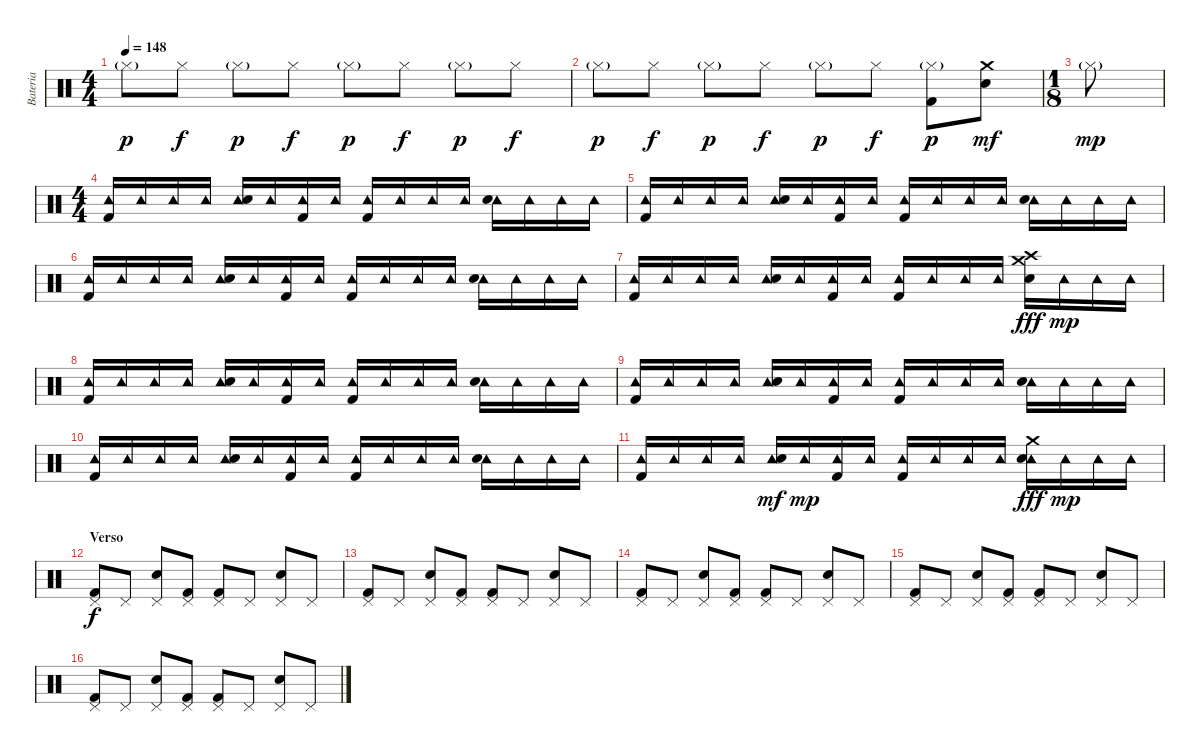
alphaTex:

\track ("Bateria" "Bateria") {instrument percussion}
\staff {score}
\articulation defaults
\ts (4 4)
\tempo 148
\clef neutral
\ks c "Hi-Hat (closed)"{g}.8{dy p} "Hi-Hat (closed)".8{dy f} "Hi-Hat (closed)"{g}.8{dy p} "Hi-Hat (closed)".8{dy f} "Hi-Hat (closed)"{g}.8{dy p} "Hi-Hat (closed)".8{dy f} "Hi-Hat (closed)"{g}.8{dy p} "Hi-Hat (closed)".8{dy f}
|
"Hi-Hat (closed)"{g}.8{dy p} "Hi-Hat (closed)".8{dy f} "Hi-Hat (closed)"{g}.8{dy p} "Hi-Hat (closed)".8{dy f} "Hi-Hat (closed)"{g}.8{dy p} "Hi-Hat (closed)".8{dy f} ("Hi-Hat (closed)"{g} "Kick (hit) 2").8{dy p} ("Crash medium (hit)" "Snare (hit) 2").8{dy mf} |
\ts (1 8)
"Hi-Hat (closed)"{g}.8{dy mp} |
\ts (4 4)
("Tambourine (hit)" "Kick (hit) 2").16 "Tambourine (hit)".16 "Tambourine (hit)".16 "Tambourine (hit)".16 ("Tambourine (hit)" "Snare (hit) 2").16 "Tambourine (hit)".16 ("Tambourine (hit)" "Kick (hit) 2").16 "Tambourine (hit)".16 ("Tambourine (hit)" "Kick (hit) 2").16 "Tambourine (hit)".16 "Tambourine (hit)".16 "Tambourine (hit)".16 ("Tambourine (hit)" "Snare (hit) 2").16 "Tambourine (hit)".16 "Tambourine (hit)".16 "Tambourine (hit)".16 |
("Tambourine (hit)" "Kick (hit) 2").16 "Tambourine (hit)".16 "Tambourine (hit)".16 "Tambourine (hit)".16 ("Tambourine (hit)" "Snare (hit) 2").16 "Tambourine (hit)".16 ("Tambourine (hit)" "Kick (hit) 2").16 "Tambourine (hit)".16 ("Tambourine (hit)" "Kick (hit) 2").16 "Tambourine (hit)".16 "Tambourine (hit)".16 "Tambourine (hit)".16 ("Tambourine (hit)" "Snare (hit) 2").16 "Tambourine (hit)".16 "Tambourine (hit)".16 "Tambourine (hit)".16 |
("Tambourine (hit)" "Kick (hit) 2").16 "Tambourine (hit)".16 "Tambourine (hit)".16 "Tambourine (hit)".16 ("Tambourine (hit)" "Snare (hit) 2").16 "Tambourine (hit)".16 ("Tambourine (hit)" "Kick (hit) 2").16 "Tambourine (hit)".16 ("Tambourine (hit)" "Kick (hit) 2").16 "Tambourine (hit)".16 "Tambourine (hit)".16 "Tambourine (hit)".16 ("Tambourine (hit)" "Snare (hit) 2").16 "Tambourine (hit)".16 "Tambourine (hit)".16 "Tambourine (hit)".16 |
("Tambourine (hit)" "Kick (hit) 2").16 "Tambourine (hit)".16 "Tambourine (hit)".16 "Tambourine (hit)".16 ("Tambourine (hit)" "Snare (hit) 2").16 "Tambourine (hit)".16 ("Tambourine (hit)" "Kick (hit) 2").16 "Tambourine (hit)".16 ("Tambourine (hit)" "Kick (hit) 2").16 "Tambourine (hit)".16 "Tambourine (hit)".16 "Tambourine (hit)".16 ("Crash high (hit)" "Crash medium (hit)" "Snare (hit) 2").16{dy fff} "Tambourine (hit)".16{dy mp} "Tambourine (hit)".16 "Tambourine (hit)".16 |
("Tambourine (hit)" "Kick (hit) 2").16 "Tambourine (hit)".16 "Tambourine (hit)".16 "Tambourine (hit)".16 ("Tambourine (hit)" "Snare (hit) 2").16 "Tambourine (hit)".16 ("Tambourine (hit)" "Kick (hit) 2").16 "Tambourine (hit)".16 ("Tambourine (hit)" "Kick (hit) 2").16 "Tambourine (hit)".16 "Tambourine (hit)".16 "Tambourine (hit)".16 ("Tambourine (hit)" "Snare (hit) 2").16 "Tambourine (hit)".16 "Tambourine (hit)".16 "Tambourine (hit)".16 |
("Tambourine (hit)" "Kick (hit) 2").16 "Tambourine (hit)".16 "Tambourine (hit)".16 "Tambourine (hit)".16 ("Tambourine (hit)" "Snare (hit) 2").16 "Tambourine (hit)".16 ("Tambourine (hit)" "Kick (hit) 2").16 "Tambourine (hit)".16 ("Tambourine (hit)" "Kick (hit) 2").16 "Tambourine (hit)".16 "Tambourine (hit)".16 "Tambourine (hit)".16 ("Tambourine (hit)" "Snare (hit) 2").16 "Tambourine (hit)".16 "Tambourine (hit)".16 "Tambourine (hit)".16 |
("Tambourine (hit)" "Kick (hit) 2").16 "Tambourine (hit)".16 "Tambourine (hit)".16 "Tambourine (hit)".16 ("Tambourine (hit)" "Snare (hit) 2").16 "Tambourine (hit)".16 ("Tambourine (hit)" "Kick (hit) 2").16 "Tambourine (hit)".16 ("Tambourine (hit)" "Kick (hit) 2").16 "Tambourine (hit)".16 "Tambourine (hit)".16 "Tambourine (hit)".16 ("Tambourine (hit)" "Snare (hit) 2").16 "Tambourine (hit)".16 "Tambourine (hit)".16 "Tambourine (hit)".16 |
("Tambourine (hit)" "Kick (hit) 2").16 "Tambourine (hit)".16 "Tambourine (hit)".16 "Tambourine (hit)".16 ("Tambourine (hit)" "Snare (hit) 2").16{dy mf} "Tambourine (hit)".16{dy mp} ("Tambourine (hit)" "Kick (hit) 2").16 "Tambourine (hit)".16 ("Tambourine (hit)" "Kick (hit) 2").16 "Tambourine (hit)".16 "Tambourine (hit)".16 "Tambourine (hit)".16 ("Tambourine (hit)" "Crash medium (hit)" "Snare (hit) 2").16{dy fff} "Tambourine (hit)".16{dy mp} "Tambourine (hit)".16 "Tambourine (hit)".16 |
\section ("" "Verso")
("Pedal Hi-Hat (hit)" "Kick (hit) 2").8{dy f} "Pedal Hi-Hat (hit)".8 ("Pedal Hi-Hat (hit)" "Snare (hit) 2").8 ("Pedal Hi-Hat (hit)" "Kick (hit) 2").8 ("Pedal Hi-Hat (hit)" "Kick (hit) 2").8 "Pedal Hi-Hat (hit)".8 ("Pedal Hi-Hat (hit)" "Snare (hit) 2").8 "Pedal Hi-Hat (hit)".8 |
("Pedal Hi-Hat (hit)" "Kick (hit) 2").8 "Pedal Hi-Hat (hit)".8 ("Pedal Hi-Hat (hit)" "Snare (hit) 2").8 ("Pedal Hi-Hat (hit)" "Kick (hit) 2").8 ("Pedal Hi-Hat (hit)" "Kick (hit) 2").8 "Pedal Hi-Hat (hit)".8 ("Pedal Hi-Hat (hit)" "Snare (hit) 2").8 "Pedal Hi-Hat (hit)".8 |
("Pedal Hi-Hat (hit)" "Kick (hit) 2").8 "Pedal Hi-Hat (hit)".8 ("Pedal Hi-Hat (hit)" "Snare (hit) 2").8 ("Pedal Hi-Hat (hit)" "Kick (hit) 2").8 ("Pedal Hi-Hat (hit)" "Kick (hit) 2").8 "Pedal Hi-Hat (hit)".8 ("Pedal Hi-Hat (hit)" "Snare (hit) 2").8 "Pedal Hi-Hat (hit)".8 |
("Pedal Hi-Hat (hit)" "Kick (hit) 2").8 "Pedal Hi-Hat (hit)".8 ("Pedal Hi-Hat (hit)" "Snare (hit) 2").8 ("Pedal Hi-Hat (hit)" "Kick (hit) 2").8 ("Pedal Hi-Hat (hit)" "Kick (hit) 2").8 "Pedal Hi-Hat (hit)".8 ("Pedal Hi-Hat (hit)" "Snare (hit) 2").8 "Pedal Hi-Hat (hit)".8 |
("Pedal Hi-Hat (hit)" "Kick (hit) 2").8 "Pedal Hi-Hat (hit)".8 ("Pedal Hi-Hat (hit)" "Snare (hit) 2").8 ("Pedal Hi-Hat (hit)" "Kick (hit) 2").8 ("Pedal Hi-Hat (hit)" "Kick (hit) 2").8 "Pedal Hi-Hat (hit)".8 ("Pedal Hi-Hat (hit)" "Snare (hit) 2").8 "Pedal Hi-Hat (hit)".8
